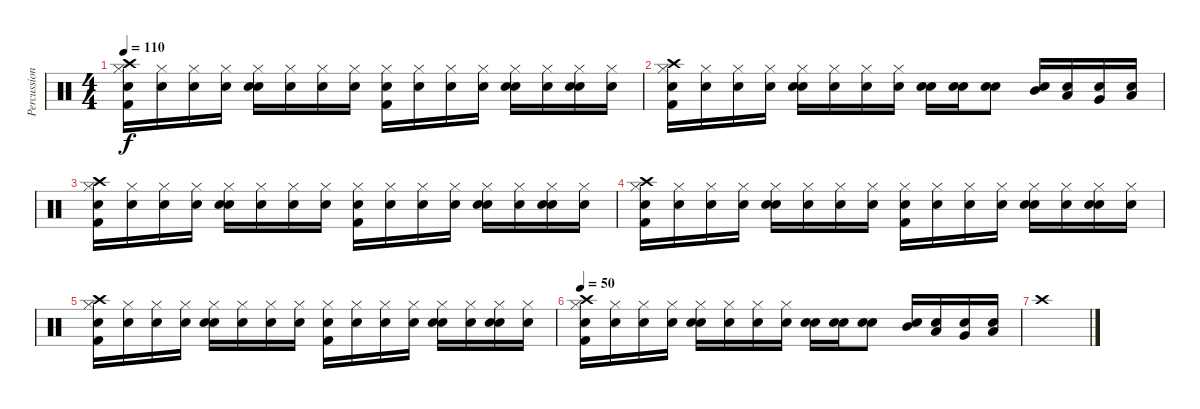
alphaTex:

\track ("Percussion" "Percussion") {instrument percussion}
\staff {score}
\articulation defaults
\ts (4 4)
\tempo 110
\clef neutral
\ks c
("Snare (hit)" "Kick (hit) 2" "Hi-Hat (closed)" "Crash high (hit)").16{dy f} ("Snare (hit)" "Hi-Hat (closed)").16 ("Snare (hit)" "Hi-Hat (closed)").16 ("Snare (hit)" "Hi-Hat (closed)").16 ("Snare (hit)" "Snare (hit) 2" "Hi-Hat (closed)").16 ("Snare (hit)" "Hi-Hat (closed)").16 ("Snare (hit)" "Hi-Hat (closed)").16 ("Snare (hit)" "Hi-Hat (closed)").16 ("Snare (hit)" "Kick (hit) 2" "Hi-Hat (closed)").16 ("Snare (hit)" "Hi-Hat (closed)").16 ("Snare (hit)" "Hi-Hat (closed)").16 ("Snare (hit)" "Hi-Hat (closed)").16 ("Snare (hit)" "Snare (hit) 2" "Hi-Hat (closed)").16 ("Snare (hit)" "Hi-Hat (closed)").16 ("Snare (hit)" "Snare (hit) 2" "Hi-Hat (closed)").16 ("Snare (hit)" "Hi-Hat (closed)").16 |
("Snare (hit)" "Kick (hit) 2" "Hi-Hat (closed)" "Crash high (hit)").16 ("Snare (hit)" "Hi-Hat (closed)").16 ("Snare (hit)" "Hi-Hat (closed)").16 ("Snare (hit)" "Hi-Hat (closed)").16 ("Snare (hit)" "Snare (hit) 2" "Hi-Hat (closed)").16 ("Snare (hit)" "Hi-Hat (closed)").16 ("Snare (hit)" "Hi-Hat (closed)").16 ("Snare (hit)" "Hi-Hat (closed)").16 ("Snare (hit)" "Snare (hit) 2").16 ("Snare (hit)" "Snare (hit) 2").16 ("Snare (hit)" "Snare (hit) 2").8 ("Snare (hit)" "Mid Tom (hit)").16 ("Snare (hit)" "Low Tom (hit)").16 ("Snare (hit)" "Very Low Tom (hit)").16 ("Snare (hit)" "Low Floor Tom (hit)").16 |
("Snare (hit)" "Kick (hit) 2" "Hi-Hat (closed)" "Crash high (hit)").16 ("Snare (hit)" "Hi-Hat (closed)").16 ("Snare (hit)" "Hi-Hat (closed)").16 ("Snare (hit)" "Hi-Hat (closed)").16 ("Snare (hit)" "Snare (hit) 2" "Hi-Hat (closed)").16 ("Snare (hit)" "Hi-Hat (closed)").16 ("Snare (hit)" "Hi-Hat (closed)").16 ("Snare (hit)" "Hi-Hat (closed)").16 ("Snare (hit)" "Kick (hit) 2" "Hi-Hat (closed)").16 ("Snare (hit)" "Hi-Hat (closed)").16 ("Snare (hit)" "Hi-Hat (closed)").16 ("Snare (hit)" "Hi-Hat (closed)").16 ("Snare (hit)" "Snare (hit) 2" "Hi-Hat (closed)").16 ("Snare (hit)" "Hi-Hat (closed)").16 ("Snare (hit)" "Snare (hit) 2" "Hi-Hat (closed)").16 ("Snare (hit)" "Hi-Hat (closed)").16 |
("Snare (hit)" "Kick (hit) 2" "Hi-Hat (closed)" "Crash high (hit)").16 ("Snare (hit)" "Hi-Hat (closed)").16 ("Snare (hit)" "Hi-Hat (closed)").16 ("Snare (hit)" "Hi-Hat (closed)").16 ("Snare (hit)" "Snare (hit) 2" "Hi-Hat (closed)").16 ("Snare (hit)" "Hi-Hat (closed)").16 ("Snare (hit)" "Hi-Hat (closed)").16 ("Snare (hit)" "Hi-Hat (closed)").16 ("Snare (hit)" "Kick (hit) 2" "Hi-Hat (closed)").16 ("Snare (hit)" "Hi-Hat (closed)").16 ("Snare (hit)" "Hi-Hat (closed)").16 ("Snare (hit)" "Hi-Hat (closed)").16 ("Snare (hit)" "Snare (hit) 2" "Hi-Hat (closed)").16 ("Snare (hit)" "Hi-Hat (closed)").16 ("Snare (hit)" "Snare (hit) 2" "Hi-Hat (closed)").16 ("Snare (hit)" "Hi-Hat (closed)").16 |
("Snare (hit)" "Kick (hit) 2" "Hi-Hat (closed)" "Crash high (hit)").16 ("Snare (hit)" "Hi-Hat (closed)").16 ("Snare (hit)" "Hi-Hat (closed)").16 ("Snare (hit)" "Hi-Hat (closed)").16 ("Snare (hit)" "Snare (hit) 2" "Hi-Hat (closed)").16 ("Snare (hit)" "Hi-Hat (closed)").16 ("Snare (hit)" "Hi-Hat (closed)").16 ("Snare (hit)" "Hi-Hat (closed)").16 ("Snare (hit)" "Kick (hit) 2" "Hi-Hat (closed)").16 ("Snare (hit)" "Hi-Hat (closed)").16 ("Snare (hit)" "Hi-Hat (closed)").16 ("Snare (hit)" "Hi-Hat (closed)").16 ("Snare (hit)" "Snare (hit) 2" "Hi-Hat (closed)").16 ("Snare (hit)" "Hi-Hat (closed)").16 ("Snare (hit)" "Snare (hit) 2" "Hi-Hat (closed)").16 ("Snare (hit)" "Hi-Hat (closed)").16 |
\tempo 50
("Snare (hit)" "Kick (hit) 2" "Hi-Hat (closed)" "Crash high (hit)").16 ("Snare (hit)" "Hi-Hat (closed)").16 ("Snare (hit)" "Hi-Hat (closed)").16 ("Snare (hit)" "Hi-Hat (closed)").16 ("Snare (hit)" "Snare (hit) 2" "Hi-Hat (closed)").16 ("Snare (hit)" "Hi-Hat (closed)").16 ("Snare (hit)" "Hi-Hat (closed)").16 ("Snare (hit)" "Hi-Hat (closed)").16 ("Snare (hit)" "Snare (hit) 2").16 ("Snare (hit)" "Snare (hit) 2").16 ("Snare (hit)" "Snare (hit) 2").8 ("Snare (hit)" "Mid Tom (hit)").16 ("Snare (hit)" "Low Tom (hit)").16 ("Snare (hit)" "Very Low Tom (hit)").16 ("Snare (hit)" "Low Floor Tom (hit)").16 |
"Crash high (hit)".1
